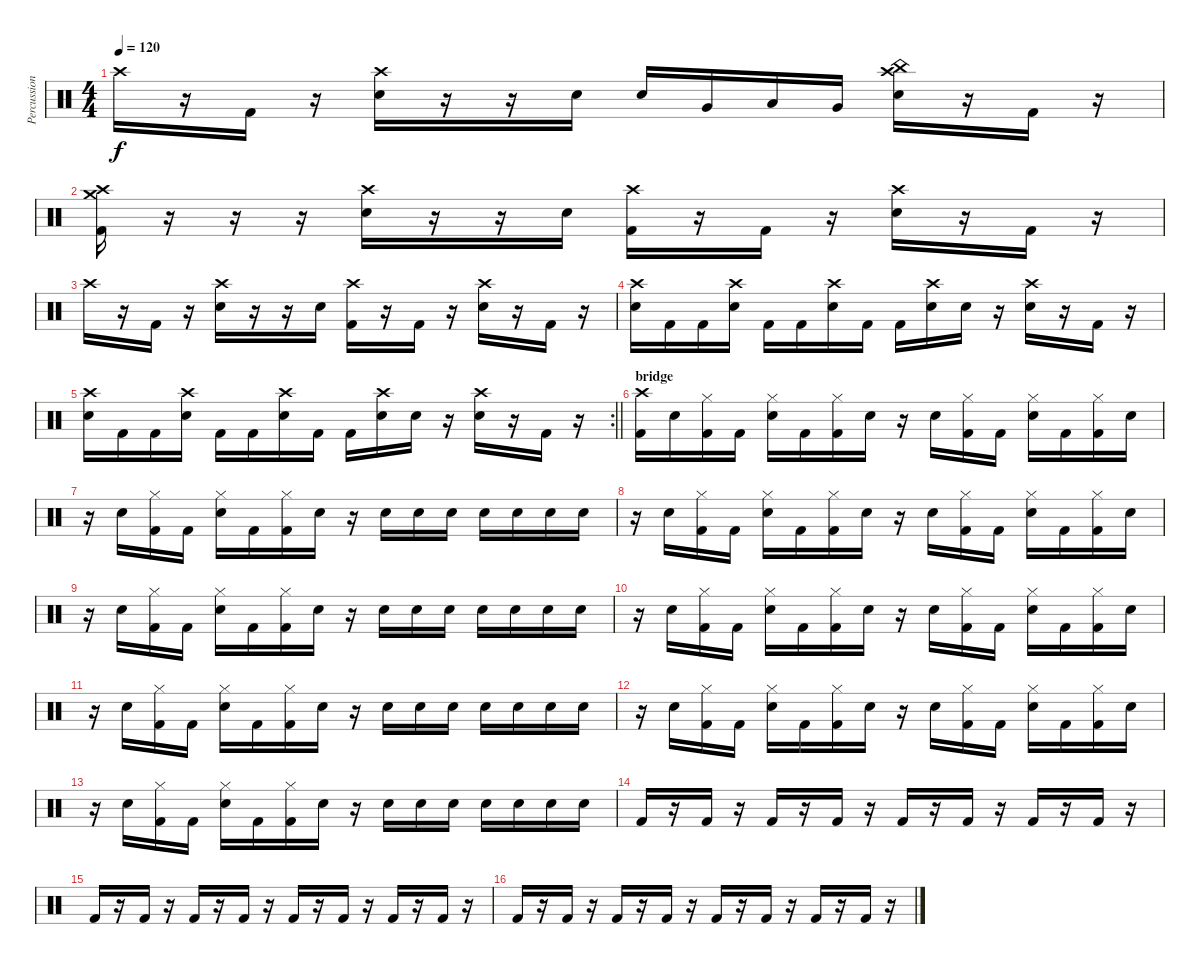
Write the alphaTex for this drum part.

\track ("Percussion" "Percussion") {instrument percussion}
\staff {score}
\articulation defaults
\ts (4 4)
\tempo 120
\clef neutral
\ks c "Crash high (hit)".16{dy f}
r.16 "Kick (hit) 2".16 r.16 ("Crash high (hit)" "Electric Snare (hit)").16 r.16 r.16 "Electric Snare (hit)".16 "Electric Snare (hit)".16 "Very Low Tom (hit)".16 "Low Floor Tom (hit)".16 "Very Low Tom (hit)".16 ("China (hit)" "Crash high (hit)" "Electric Snare (hit)").16 r.16 "Kick (hit) 2".16 r.16 |
("Crash medium (hit)" "Crash high (hit)" "Kick (hit) 2").16 r.16 r.16 r.16 ("Crash high (hit)" "Electric Snare (hit)").16 r.16 r.16 "Electric Snare (hit)".16 ("Crash high (hit)" "Kick (hit) 2").16 r.16 "Kick (hit) 2".16 r.16 ("Crash high (hit)" "Electric Snare (hit)").16 r.16 "Kick (hit) 2".16 r.16 |
"Crash high (hit)".16 r.16 "Kick (hit) 2".16 r.16 ("Crash high (hit)" "Electric Snare (hit)").16 r.16 r.16 "Electric Snare (hit)".16 ("Crash high (hit)" "Kick (hit) 2").16 r.16 "Kick (hit) 2".16 r.16 ("Crash high (hit)" "Electric Snare (hit)").16 r.16 "Kick (hit) 2".16 r.16 |
("Crash high (hit)" "Electric Snare (hit)").16 "Kick (hit) 2".16 "Kick (hit) 2".16 ("Crash high (hit)" "Electric Snare (hit)").16 "Kick (hit) 2".16 "Kick (hit) 2".16 ("Crash high (hit)" "Electric Snare (hit)").16 "Kick (hit) 2".16 "Kick (hit) 2".16 ("Crash high (hit)" "Electric Snare (hit)").16 "Electric Snare (hit)".16 r.16 ("Crash high (hit)" "Electric Snare (hit)").16 r.16 "Kick (hit) 2".16 r.16 |
\rc 2
\barLineRight lightlight
("Crash high (hit)" "Electric Snare (hit)").16 "Kick (hit) 2".16 "Kick (hit) 2".16 ("Crash high (hit)" "Electric Snare (hit)").16 "Kick (hit) 2".16 "Kick (hit) 2".16 ("Crash high (hit)" "Electric Snare (hit)").16 "Kick (hit) 2".16 "Kick (hit) 2".16 ("Crash high (hit)" "Electric Snare (hit)").16 "Electric Snare (hit)".16 r.16 ("Crash high (hit)" "Electric Snare (hit)").16 r.16 "Kick (hit) 2".16 r.16 |
\section ("" "bridge")
("Crash high (hit)" "Kick (hit) 2").16 "Electric Snare (hit)".16 ("Hi-Hat (closed)" "Kick (hit) 2").16 "Kick (hit) 2".16 ("Hi-Hat (closed)" "Electric Snare (hit)").16 "Kick (hit) 2".16 ("Hi-Hat (closed)" "Kick (hit) 2").16 "Electric Snare (hit)".16 r.16 "Electric Snare (hit)".16 ("Hi-Hat (closed)" "Kick (hit) 2").16 "Kick (hit) 2".16 ("Hi-Hat (closed)" "Electric Snare (hit)").16 "Kick (hit) 2".16 ("Hi-Hat (closed)" "Kick (hit) 2").16 "Electric Snare (hit)".16 |
r.16 "Electric Snare (hit)".16 ("Hi-Hat (closed)" "Kick (hit) 2").16 "Kick (hit) 2".16 ("Hi-Hat (closed)" "Electric Snare (hit)").16 "Kick (hit) 2".16 ("Hi-Hat (closed)" "Kick (hit) 2").16 "Electric Snare (hit)".16 r.16 "Electric Snare (hit)".16 "Electric Snare (hit)".16 "Electric Snare (hit)".16 "Electric Snare (hit)".16 "Electric Snare (hit)".16 "Electric Snare (hit)".16 "Electric Snare (hit)".16 |
r.16 "Electric Snare (hit)".16 ("Hi-Hat (closed)" "Kick (hit) 2").16 "Kick (hit) 2".16 ("Hi-Hat (closed)" "Electric Snare (hit)").16 "Kick (hit) 2".16 ("Hi-Hat (closed)" "Kick (hit) 2").16 "Electric Snare (hit)".16 r.16 "Electric Snare (hit)".16 ("Hi-Hat (closed)" "Kick (hit) 2").16 "Kick (hit) 2".16 ("Hi-Hat (closed)" "Electric Snare (hit)").16 "Kick (hit) 2".16 ("Hi-Hat (closed)" "Kick (hit) 2").16 "Electric Snare (hit)".16 |
r.16 "Electric Snare (hit)".16 ("Hi-Hat (closed)" "Kick (hit) 2").16 "Kick (hit) 2".16 ("Hi-Hat (closed)" "Electric Snare (hit)").16 "Kick (hit) 2".16 ("Hi-Hat (closed)" "Kick (hit) 2").16 "Electric Snare (hit)".16 r.16 "Electric Snare (hit)".16 "Electric Snare (hit)".16 "Electric Snare (hit)".16 "Electric Snare (hit)".16 "Electric Snare (hit)".16 "Electric Snare (hit)".16 "Electric Snare (hit)".16 |
r.16 "Electric Snare (hit)".16 ("Hi-Hat (closed)" "Kick (hit) 2").16 "Kick (hit) 2".16 ("Hi-Hat (closed)" "Electric Snare (hit)").16 "Kick (hit) 2".16 ("Hi-Hat (closed)" "Kick (hit) 2").16 "Electric Snare (hit)".16 r.16 "Electric Snare (hit)".16 ("Hi-Hat (closed)" "Kick (hit) 2").16 "Kick (hit) 2".16 ("Hi-Hat (closed)" "Electric Snare (hit)").16 "Kick (hit) 2".16 ("Hi-Hat (closed)" "Kick (hit) 2").16 "Electric Snare (hit)".16 |
r.16 "Electric Snare (hit)".16 ("Hi-Hat (closed)" "Kick (hit) 2").16 "Kick (hit) 2".16 ("Hi-Hat (closed)" "Electric Snare (hit)").16 "Kick (hit) 2".16 ("Hi-Hat (closed)" "Kick (hit) 2").16 "Electric Snare (hit)".16 r.16 "Electric Snare (hit)".16 "Electric Snare (hit)".16 "Electric Snare (hit)".16 "Electric Snare (hit)".16 "Electric Snare (hit)".16 "Electric Snare (hit)".16 "Electric Snare (hit)".16 |
r.16 "Electric Snare (hit)".16 ("Hi-Hat (closed)" "Kick (hit) 2").16 "Kick (hit) 2".16 ("Hi-Hat (closed)" "Electric Snare (hit)").16 "Kick (hit) 2".16 ("Hi-Hat (closed)" "Kick (hit) 2").16 "Electric Snare (hit)".16 r.16 "Electric Snare (hit)".16 ("Hi-Hat (closed)" "Kick (hit) 2").16 "Kick (hit) 2".16 ("Hi-Hat (closed)" "Electric Snare (hit)").16 "Kick (hit) 2".16 ("Hi-Hat (closed)" "Kick (hit) 2").16 "Electric Snare (hit)".16 |
r.16 "Electric Snare (hit)".16 ("Hi-Hat (closed)" "Kick (hit) 2").16 "Kick (hit) 2".16 ("Hi-Hat (closed)" "Electric Snare (hit)").16 "Kick (hit) 2".16 ("Hi-Hat (closed)" "Kick (hit) 2").16 "Electric Snare (hit)".16 r.16 "Electric Snare (hit)".16 "Electric Snare (hit)".16 "Electric Snare (hit)".16 "Electric Snare (hit)".16 "Electric Snare (hit)".16 "Electric Snare (hit)".16 "Electric Snare (hit)".16 |
"Kick (hit) 2".16 r.16 "Kick (hit) 2".16 r.16 "Kick (hit) 2".16 r.16 "Kick (hit) 2".16 r.16 "Kick (hit) 2".16 r.16 "Kick (hit) 2".16 r.16 "Kick (hit) 2".16 r.16 "Kick (hit) 2".16 r.16 |
"Kick (hit) 2".16 r.16 "Kick (hit) 2".16 r.16 "Kick (hit) 2".16 r.16 "Kick (hit) 2".16 r.16 "Kick (hit) 2".16 r.16 "Kick (hit) 2".16 r.16 "Kick (hit) 2".16 r.16 "Kick (hit) 2".16 r.16 |
"Kick (hit) 2".16 r.16 "Kick (hit) 2".16 r.16 "Kick (hit) 2".16 r.16 "Kick (hit) 2".16 r.16 "Kick (hit) 2".16 r.16 "Kick (hit) 2".16 r.16 "Kick (hit) 2".16 r.16 "Kick (hit) 2".16 r.16
